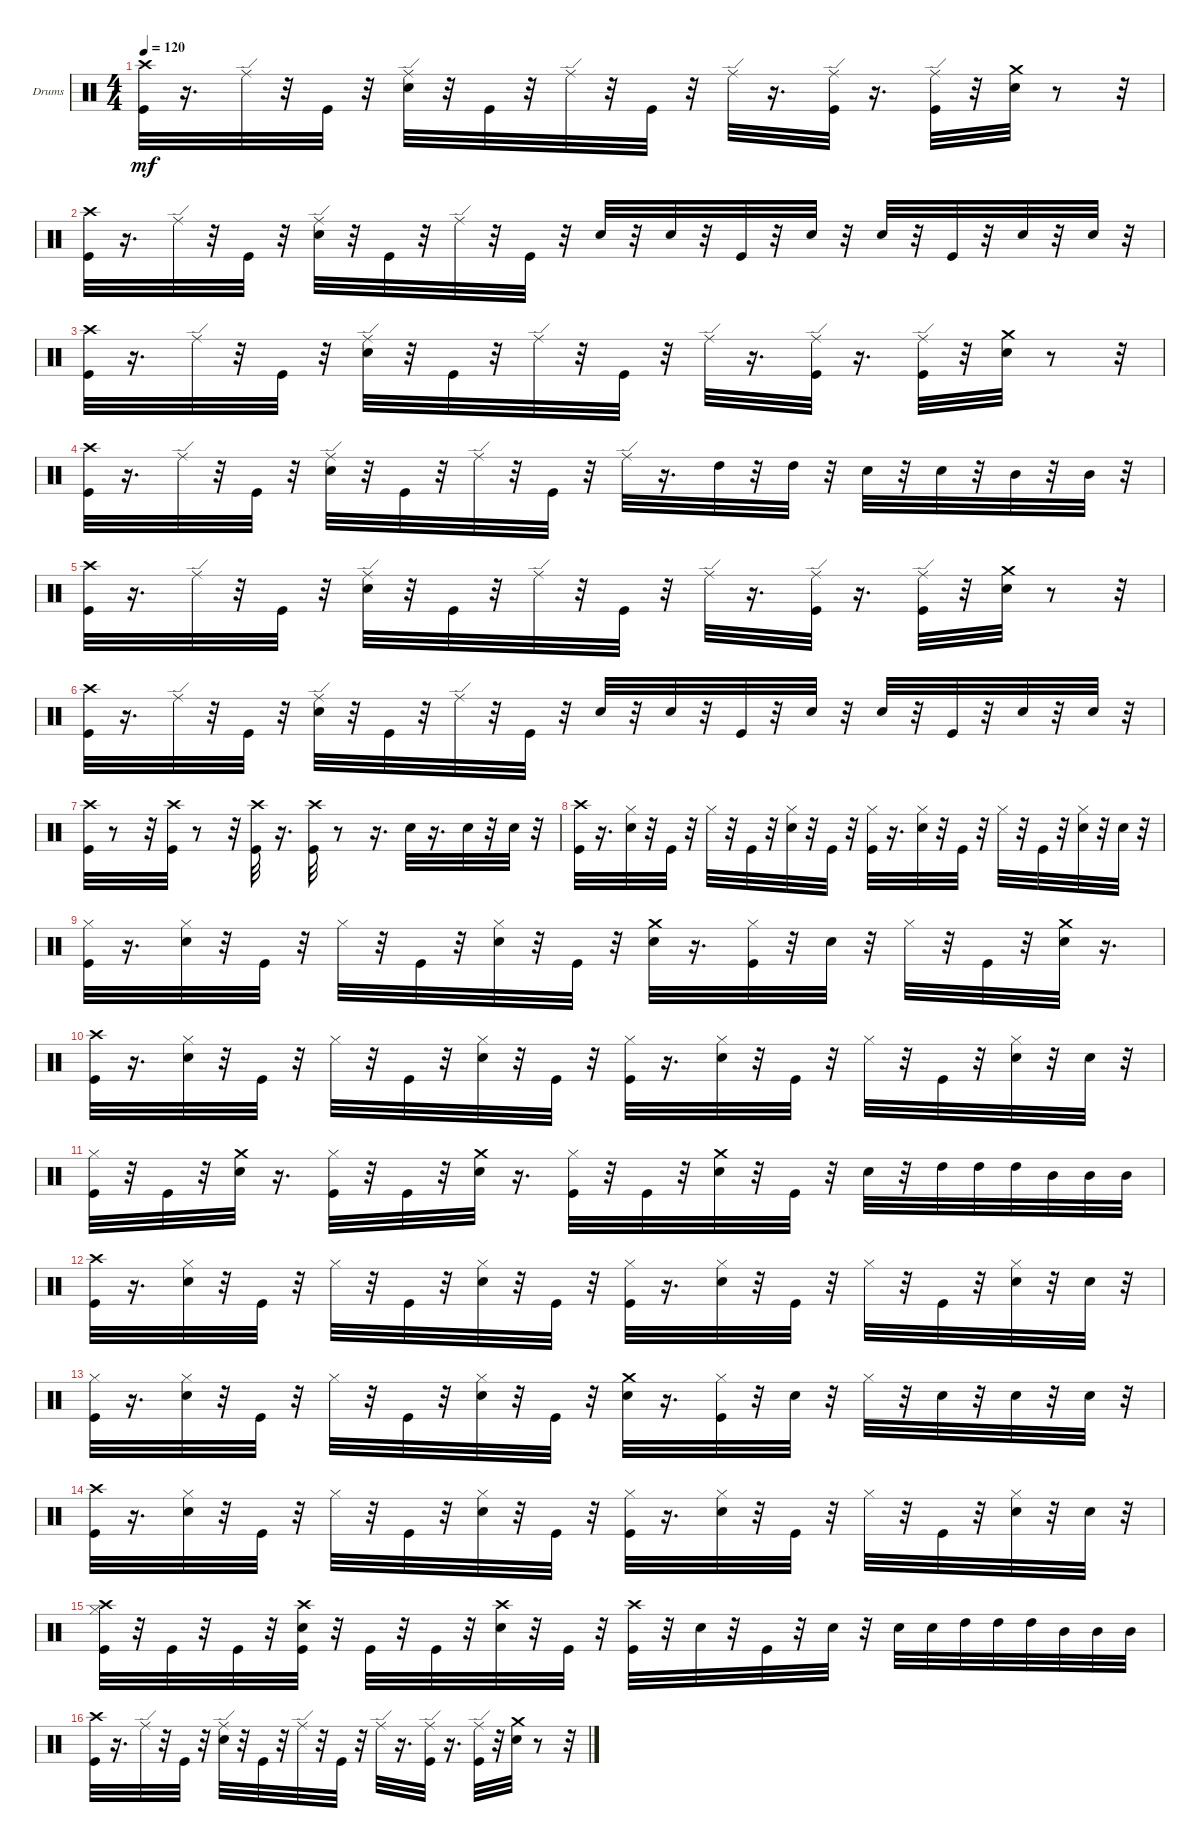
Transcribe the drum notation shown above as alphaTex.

\bracketExtendMode groupsimilarinstruments
\firstSystemTrackNameOrientation horizontal
\otherSystemsTrackNameOrientation horizontal
\track ("" "Drums") {instrument percussion}
\staff {score}
\articulation defaults
\ts (4 4)
\tempo 120
\clef neutral
\ks c
("Crash high (hit)" "Kick (hit)").32{dy mf} r.16{d} "Ride (edge)".32 r.32 "Kick (hit)".32 r.32 ("Ride (edge)" "Snare (hit) 2").32 r.32 "Kick (hit)".32 r.32 "Ride (edge)".32 r.32 "Kick (hit)".32 r.32 "Ride (edge)".32 r.16{d} ("Ride (edge)" "Kick (hit)").32 r.16{d} ("Ride (edge)" "Kick (hit)").32 r.32 ("Crash medium (hit)" "Snare (hit) 2").32 r.8 r.32 |
("Crash high (hit)" "Kick (hit)").32 r.16{d} "Ride (edge)".32 r.32 "Kick (hit)".32 r.32 ("Snare (hit) 2" "Ride (edge)").32 r.32 "Kick (hit)".32 r.32 "Ride (edge)".32 r.32 "Kick (hit)".32 r.32 "Snare (hit) 2".32 r.32 "Snare (hit) 2".32 r.32 "Kick (hit)".32 r.32 "Snare (hit) 2".32 r.32 "Snare (hit) 2".32 r.32 "Kick (hit)".32 r.32 "Snare (hit) 2".32 r.32 "Snare (hit) 2".32 r.32 |
("Crash high (hit)" "Kick (hit)").32 r.16{d} "Ride (edge)".32 r.32 "Kick (hit)".32 r.32 ("Ride (edge)" "Snare (hit) 2").32 r.32 "Kick (hit)".32 r.32 "Ride (edge)".32 r.32 "Kick (hit)".32 r.32 "Ride (edge)".32 r.16{d} ("Ride (edge)" "Kick (hit)").32 r.16{d} ("Ride (edge)" "Kick (hit)").32 r.32 ("Crash medium (hit)" "Snare (hit) 2").32 r.8 r.32 |
("Crash high (hit)" "Kick (hit)").32 r.16{d} "Ride (edge)".32 r.32 "Kick (hit)".32 r.32 ("Ride (edge)" "Snare (hit) 2").32 r.32 "Kick (hit)".32 r.32 "Ride (edge)".32 r.32 "Kick (hit)".32 r.32 "Ride (edge)".32 r.16{d} "High Tom (hit)".32 r.32 "High Tom (hit)".32 r.32 "Snare (hit) 2".32 r.32 "Snare (hit) 2".32 r.32 "Mid Tom (hit)".32 r.32 "Mid Tom (hit)".32 r.32 |
("Crash high (hit)" "Kick (hit)").32 r.16{d} "Ride (edge)".32 r.32 "Kick (hit)".32 r.32 ("Ride (edge)" "Snare (hit) 2").32 r.32 "Kick (hit)".32 r.32 "Ride (edge)".32 r.32 "Kick (hit)".32 r.32 "Ride (edge)".32 r.16{d} ("Ride (edge)" "Kick (hit)").32 r.16{d} ("Ride (edge)" "Kick (hit)").32 r.32 ("Crash medium (hit)" "Snare (hit) 2").32 r.8 r.32 |
("Crash high (hit)" "Kick (hit)").32 r.16{d} "Ride (edge)".32 r.32 "Kick (hit)".32 r.32 ("Snare (hit) 2" "Ride (edge)").32 r.32 "Kick (hit)".32 r.32 "Ride (edge)".32 r.32 "Kick (hit)".32 r.32 "Snare (hit) 2".32 r.32 "Snare (hit) 2".32 r.32 "Kick (hit)".32 r.32 "Snare (hit) 2".32 r.32 "Snare (hit) 2".32 r.32 "Kick (hit)".32 r.32 "Snare (hit) 2".32 r.32 "Snare (hit) 2".32 r.32 |
("Crash high (hit)" "Kick (hit)").32 r.8 r.32 ("Crash high (hit)" "Kick (hit)").32 r.8 r.32 ("Crash high (hit)" "Kick (hit)").32 r.16{d} ("Crash high (hit)" "Kick (hit)").32 r.8 r.16{d} "Snare (hit) 2".32 r.16{d} "Snare (hit) 2".32 r.32 "Snare (hit) 2".32 r.32 |
("Crash high (hit)" "Kick (hit)").32 r.16{d} ("Snare (hit) 2" "Hi-Hat (closed)").32 r.32 "Kick (hit)".32 r.32 "Hi-Hat (closed)".32 r.32 "Kick (hit)".32 r.32 ("Snare (hit) 2" "Hi-Hat (closed)").32 r.32 "Kick (hit)".32 r.32 ("Kick (hit)" "Hi-Hat (closed)").32 r.16{d} ("Snare (hit) 2" "Hi-Hat (closed)").32 r.32 "Kick (hit)".32 r.32 "Hi-Hat (closed)".32 r.32 "Kick (hit)".32 r.32 ("Snare (hit) 2" "Hi-Hat (closed)").32 r.32 "Snare (hit) 2".32 r.32 |
("Hi-Hat (closed)" "Kick (hit)").32 r.16{d} ("Snare (hit) 2" "Hi-Hat (closed)").32 r.32 "Kick (hit)".32 r.32 "Hi-Hat (closed)".32 r.32 "Kick (hit)".32 r.32 ("Snare (hit) 2" "Hi-Hat (closed)").32 r.32 "Kick (hit)".32 r.32 ("Crash medium (hit)" "Snare (hit) 2").32 r.16{d} ("Kick (hit)" "Hi-Hat (closed)").32 r.32 "Snare (hit) 2".32 r.32 "Hi-Hat (closed)".32 r.32 "Kick (hit)".32 r.32 ("Crash medium (hit)" "Snare (hit) 2").32 r.16{d} |
("Crash high (hit)" "Kick (hit)").32 r.16{d} ("Snare (hit) 2" "Hi-Hat (closed)").32 r.32 "Kick (hit)".32 r.32 "Hi-Hat (closed)".32 r.32 "Kick (hit)".32 r.32 ("Snare (hit) 2" "Hi-Hat (closed)").32 r.32 "Kick (hit)".32 r.32 ("Kick (hit)" "Hi-Hat (closed)").32 r.16{d} ("Snare (hit) 2" "Hi-Hat (closed)").32 r.32 "Kick (hit)".32 r.32 "Hi-Hat (closed)".32 r.32 "Kick (hit)".32 r.32 ("Snare (hit) 2" "Hi-Hat (closed)").32 r.32 "Snare (hit) 2".32 r.32 |
("Hi-Hat (closed)" "Kick (hit)").32 r.32 "Kick (hit)".32 r.32 ("Crash medium (hit)" "Snare (hit) 2").32 r.16{d} ("Hi-Hat (closed)" "Kick (hit)").32 r.32 "Kick (hit)".32 r.32 ("Crash medium (hit)" "Snare (hit) 2").32 r.16{d} ("Hi-Hat (closed)" "Kick (hit)").32 r.32 "Kick (hit)".32 r.32 ("Crash medium (hit)" "Snare (hit) 2").32 r.32 "Kick (hit)".32 r.32 "Snare (hit) 2".32 r.32 "High Tom (hit)".32 "High Tom (hit)".32 "High Tom (hit)".32 "Mid Tom (hit)".32 "Mid Tom (hit)".32 "Mid Tom (hit)".32 |
("Crash high (hit)" "Kick (hit)").32 r.16{d} ("Snare (hit) 2" "Hi-Hat (closed)").32 r.32 "Kick (hit)".32 r.32 "Hi-Hat (closed)".32 r.32 "Kick (hit)".32 r.32 ("Snare (hit) 2" "Hi-Hat (closed)").32 r.32 "Kick (hit)".32 r.32 ("Kick (hit)" "Hi-Hat (closed)").32 r.16{d} ("Snare (hit) 2" "Hi-Hat (closed)").32 r.32 "Kick (hit)".32 r.32 "Hi-Hat (closed)".32 r.32 "Kick (hit)".32 r.32 ("Snare (hit) 2" "Hi-Hat (closed)").32 r.32 "Snare (hit) 2".32 r.32 |
("Hi-Hat (closed)" "Kick (hit)").32 r.16{d} ("Snare (hit) 2" "Hi-Hat (closed)").32 r.32 "Kick (hit)".32 r.32 "Hi-Hat (closed)".32 r.32 "Kick (hit)".32 r.32 ("Snare (hit) 2" "Hi-Hat (closed)").32 r.32 "Kick (hit)".32 r.32 ("Crash medium (hit)" "Snare (hit) 2").32 r.16{d} ("Kick (hit)" "Hi-Hat (closed)").32 r.32 "Snare (hit) 2".32 r.32 "Hi-Hat (closed)".32 r.32 "Snare (hit) 2".32 r.32 "Snare (hit) 2".32 r.32 "Snare (hit) 2".32 r.32 |
("Crash high (hit)" "Kick (hit)").32 r.16{d} ("Snare (hit) 2" "Hi-Hat (closed)").32 r.32 "Kick (hit)".32 r.32 "Hi-Hat (closed)".32 r.32 "Kick (hit)".32 r.32 ("Snare (hit) 2" "Hi-Hat (closed)").32 r.32 "Kick (hit)".32 r.32 ("Kick (hit)" "Hi-Hat (closed)").32 r.16{d} ("Snare (hit) 2" "Hi-Hat (closed)").32 r.32 "Kick (hit)".32 r.32 "Hi-Hat (closed)".32 r.32 "Kick (hit)".32 r.32 ("Snare (hit) 2" "Hi-Hat (closed)").32 r.32 "Snare (hit) 2".32 r.32 |
("Crash high (hit)" "Hi-Hat (closed)" "Kick (hit)").32 r.32 "Kick (hit)".32 r.32 "Kick (hit)".32 r.32 ("Kick (hit)" "Crash high (hit)" "Snare (hit) 2").32 r.32 "Kick (hit)".32 r.32 "Kick (hit)".32 r.32 ("Snare (hit) 2" "Crash high (hit)").32 r.32 "Kick (hit)".32 r.32 ("Crash high (hit)" "Kick (hit)").32 r.32 "Snare (hit) 2".32 r.32 "Kick (hit)".32 r.32 "Snare (hit) 2".32 r.32 "Snare (hit) 2".32 "Snare (hit) 2".32 "High Tom (hit)".32 "High Tom (hit)".32 "High Tom (hit)".32 "Mid Tom (hit)".32 "Mid Tom (hit)".32 "Mid Tom (hit)".32 |
("Crash high (hit)" "Kick (hit)").32 r.16{d} "Ride (edge)".32 r.32 "Kick (hit)".32 r.32 ("Ride (edge)" "Snare (hit) 2").32 r.32 "Kick (hit)".32 r.32 "Ride (edge)".32 r.32 "Kick (hit)".32 r.32 "Ride (edge)".32 r.16{d} ("Ride (edge)" "Kick (hit)").32 r.16{d} ("Ride (edge)" "Kick (hit)").32 r.32 ("Crash medium (hit)" "Snare (hit) 2").32 r.8 r.32
